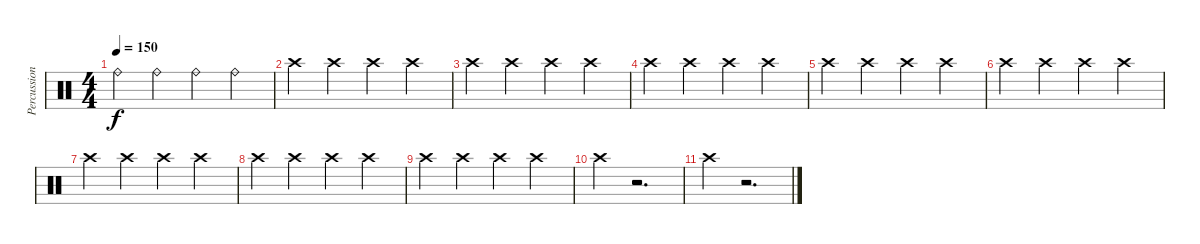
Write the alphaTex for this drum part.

\track ("Percussion Cymbals" "Percussion") {instrument percussion}
\staff {score}
\articulation defaults
\ts (4 4)
\tempo 150
\clef neutral
\ks c "Ride (bell)".4{dy f} "Ride (bell)".4 "Ride (bell)".4 "Ride (bell)".4
|
"Crash high (hit)".4 "Crash high (hit)".4 "Crash high (hit)".4 "Crash high (hit)".4 |
"Crash high (hit)".4 "Crash high (hit)".4 "Crash high (hit)".4 "Crash high (hit)".4 |
"Crash high (hit)".4 "Crash high (hit)".4 "Crash high (hit)".4 "Crash high (hit)".4 |
"Crash high (hit)".4 "Crash high (hit)".4 "Crash high (hit)".4 "Crash high (hit)".4 |
"Crash high (hit)".4 "Crash high (hit)".4 "Crash high (hit)".4 "Crash high (hit)".4 |
"Crash high (hit)".4 "Crash high (hit)".4 "Crash high (hit)".4 "Crash high (hit)".4 |
"Crash high (hit)".4 "Crash high (hit)".4 "Crash high (hit)".4 "Crash high (hit)".4 |
"Crash high (hit)".4 "Crash high (hit)".4 "Crash high (hit)".4 "Crash high (hit)".4 |
"Crash high (hit)".4 r.2{d} |
"Crash high (hit)".4 r.2{d}
